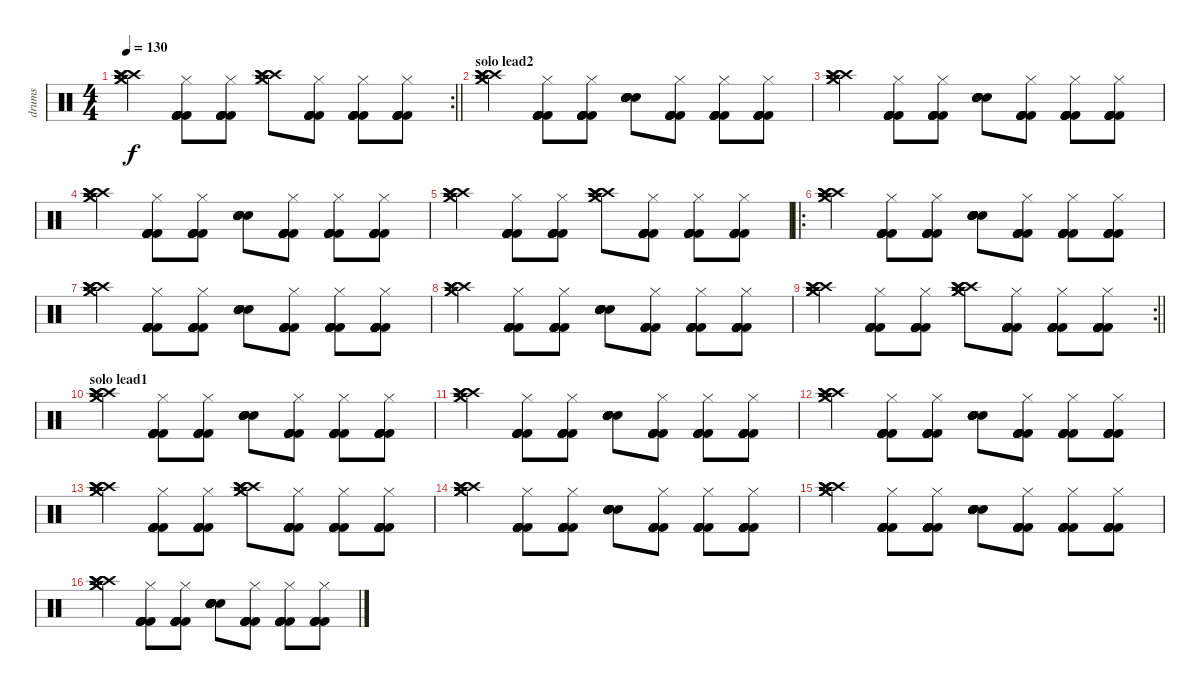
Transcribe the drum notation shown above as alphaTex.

\track ("drums" "drums") {instrument percussion}
\staff {score}
\articulation defaults
\rc 2
\ts (4 4)
\tempo 130
\clef neutral
\barLineRight lightlight
\ks c
("Crash medium (hit)" "Crash medium (hit)" "Crash high (hit)" "Crash high (hit)" "Crash high (hit)" "Crash high (hit)").4{dy f} ("Kick (hit) 2" "Kick (hit) 2" "Kick (hit) 2" "Hi-Hat (closed)" "Kick (hit) 2" "Kick (hit) 2").8 ("Kick (hit) 2" "Kick (hit) 2" "Kick (hit) 2" "Hi-Hat (closed)" "Kick (hit) 2" "Kick (hit) 2").8 ("Crash medium (hit)" "Crash medium (hit)" "Crash high (hit)" "Crash high (hit)" "Crash high (hit)" "Crash high (hit)").8 ("Kick (hit) 2" "Kick (hit) 2" "Kick (hit) 2" "Hi-Hat (closed)" "Kick (hit) 2" "Kick (hit) 2").8 ("Kick (hit) 2" "Kick (hit) 2" "Kick (hit) 2" "Hi-Hat (closed)" "Kick (hit) 2" "Kick (hit) 2").8 ("Kick (hit) 2" "Kick (hit) 2" "Kick (hit) 2" "Hi-Hat (closed)" "Kick (hit) 2" "Kick (hit) 2").8 |
\section ("" "solo lead2")
("Crash medium (hit)" "Crash medium (hit)" "Crash high (hit)" "Crash high (hit)" "Crash high (hit)" "Crash high (hit)").4 ("Kick (hit) 2" "Kick (hit) 2" "Kick (hit) 2" "Hi-Hat (closed)" "Kick (hit) 2" "Kick (hit) 2").8 ("Kick (hit) 2" "Kick (hit) 2" "Kick (hit) 2" "Hi-Hat (closed)" "Kick (hit) 2" "Kick (hit) 2").8 ("Snare (hit) 2" "Snare (hit) 2" "Snare (hit) 2" "Electric Snare (hit)" "Electric Snare (hit)" "Electric Snare (hit)").8 ("Kick (hit) 2" "Kick (hit) 2" "Kick (hit) 2" "Hi-Hat (closed)" "Kick (hit) 2" "Kick (hit) 2").8 ("Kick (hit) 2" "Kick (hit) 2" "Kick (hit) 2" "Hi-Hat (closed)" "Kick (hit) 2" "Kick (hit) 2").8 ("Kick (hit) 2" "Kick (hit) 2" "Kick (hit) 2" "Hi-Hat (closed)" "Kick (hit) 2" "Kick (hit) 2").8 |
("Crash medium (hit)" "Crash medium (hit)" "Crash high (hit)" "Crash high (hit)" "Crash high (hit)" "Crash high (hit)").4 ("Kick (hit) 2" "Kick (hit) 2" "Kick (hit) 2" "Hi-Hat (closed)" "Kick (hit) 2" "Kick (hit) 2").8 ("Kick (hit) 2" "Kick (hit) 2" "Kick (hit) 2" "Hi-Hat (closed)" "Kick (hit) 2" "Kick (hit) 2").8 ("Snare (hit) 2" "Snare (hit) 2" "Snare (hit) 2" "Electric Snare (hit)" "Electric Snare (hit)" "Electric Snare (hit)").8 ("Kick (hit) 2" "Kick (hit) 2" "Kick (hit) 2" "Hi-Hat (closed)" "Kick (hit) 2" "Kick (hit) 2").8 ("Kick (hit) 2" "Kick (hit) 2" "Kick (hit) 2" "Hi-Hat (closed)" "Kick (hit) 2" "Kick (hit) 2").8 ("Kick (hit) 2" "Kick (hit) 2" "Kick (hit) 2" "Hi-Hat (closed)" "Kick (hit) 2" "Kick (hit) 2").8 |
("Crash medium (hit)" "Crash medium (hit)" "Crash high (hit)" "Crash high (hit)" "Crash high (hit)" "Crash high (hit)").4 ("Kick (hit) 2" "Kick (hit) 2" "Kick (hit) 2" "Hi-Hat (closed)" "Kick (hit) 2" "Kick (hit) 2").8 ("Kick (hit) 2" "Kick (hit) 2" "Kick (hit) 2" "Hi-Hat (closed)" "Kick (hit) 2" "Kick (hit) 2").8 ("Snare (hit) 2" "Snare (hit) 2" "Snare (hit) 2" "Electric Snare (hit)" "Electric Snare (hit)" "Electric Snare (hit)").8 ("Kick (hit) 2" "Kick (hit) 2" "Kick (hit) 2" "Hi-Hat (closed)" "Kick (hit) 2" "Kick (hit) 2").8 ("Kick (hit) 2" "Kick (hit) 2" "Kick (hit) 2" "Hi-Hat (closed)" "Kick (hit) 2" "Kick (hit) 2").8 ("Kick (hit) 2" "Kick (hit) 2" "Kick (hit) 2" "Hi-Hat (closed)" "Kick (hit) 2" "Kick (hit) 2").8 |
("Crash medium (hit)" "Crash medium (hit)" "Crash high (hit)" "Crash high (hit)" "Crash high (hit)" "Crash high (hit)").4 ("Kick (hit) 2" "Kick (hit) 2" "Kick (hit) 2" "Hi-Hat (closed)" "Kick (hit) 2" "Kick (hit) 2").8 ("Kick (hit) 2" "Kick (hit) 2" "Kick (hit) 2" "Hi-Hat (closed)" "Kick (hit) 2" "Kick (hit) 2").8 ("Crash medium (hit)" "Crash medium (hit)" "Crash high (hit)" "Crash high (hit)" "Crash high (hit)" "Crash high (hit)").8 ("Kick (hit) 2" "Kick (hit) 2" "Kick (hit) 2" "Hi-Hat (closed)" "Kick (hit) 2" "Kick (hit) 2").8 ("Kick (hit) 2" "Kick (hit) 2" "Kick (hit) 2" "Hi-Hat (closed)" "Kick (hit) 2" "Kick (hit) 2").8 ("Kick (hit) 2" "Kick (hit) 2" "Kick (hit) 2" "Hi-Hat (closed)" "Kick (hit) 2" "Kick (hit) 2").8 |
\ro
("Crash medium (hit)" "Crash medium (hit)" "Crash high (hit)" "Crash high (hit)" "Crash high (hit)" "Crash high (hit)").4 ("Kick (hit) 2" "Kick (hit) 2" "Kick (hit) 2" "Hi-Hat (closed)" "Kick (hit) 2" "Kick (hit) 2").8 ("Kick (hit) 2" "Kick (hit) 2" "Kick (hit) 2" "Hi-Hat (closed)" "Kick (hit) 2" "Kick (hit) 2").8 ("Snare (hit) 2" "Snare (hit) 2" "Snare (hit) 2" "Electric Snare (hit)" "Electric Snare (hit)" "Electric Snare (hit)").8 ("Kick (hit) 2" "Kick (hit) 2" "Kick (hit) 2" "Hi-Hat (closed)" "Kick (hit) 2" "Kick (hit) 2").8 ("Kick (hit) 2" "Kick (hit) 2" "Kick (hit) 2" "Hi-Hat (closed)" "Kick (hit) 2" "Kick (hit) 2").8 ("Kick (hit) 2" "Kick (hit) 2" "Kick (hit) 2" "Hi-Hat (closed)" "Kick (hit) 2" "Kick (hit) 2").8 |
("Crash medium (hit)" "Crash medium (hit)" "Crash high (hit)" "Crash high (hit)" "Crash high (hit)" "Crash high (hit)").4 ("Kick (hit) 2" "Kick (hit) 2" "Kick (hit) 2" "Hi-Hat (closed)" "Kick (hit) 2" "Kick (hit) 2").8 ("Kick (hit) 2" "Kick (hit) 2" "Kick (hit) 2" "Hi-Hat (closed)" "Kick (hit) 2" "Kick (hit) 2").8 ("Snare (hit) 2" "Snare (hit) 2" "Snare (hit) 2" "Electric Snare (hit)" "Electric Snare (hit)" "Electric Snare (hit)").8 ("Kick (hit) 2" "Kick (hit) 2" "Kick (hit) 2" "Hi-Hat (closed)" "Kick (hit) 2" "Kick (hit) 2").8 ("Kick (hit) 2" "Kick (hit) 2" "Kick (hit) 2" "Hi-Hat (closed)" "Kick (hit) 2" "Kick (hit) 2").8 ("Kick (hit) 2" "Kick (hit) 2" "Kick (hit) 2" "Hi-Hat (closed)" "Kick (hit) 2" "Kick (hit) 2").8 |
("Crash medium (hit)" "Crash medium (hit)" "Crash high (hit)" "Crash high (hit)" "Crash high (hit)" "Crash high (hit)").4 ("Kick (hit) 2" "Kick (hit) 2" "Kick (hit) 2" "Hi-Hat (closed)" "Kick (hit) 2" "Kick (hit) 2").8 ("Kick (hit) 2" "Kick (hit) 2" "Kick (hit) 2" "Hi-Hat (closed)" "Kick (hit) 2" "Kick (hit) 2").8 ("Snare (hit) 2" "Snare (hit) 2" "Snare (hit) 2" "Electric Snare (hit)" "Electric Snare (hit)" "Electric Snare (hit)").8 ("Kick (hit) 2" "Kick (hit) 2" "Kick (hit) 2" "Hi-Hat (closed)" "Kick (hit) 2" "Kick (hit) 2").8 ("Kick (hit) 2" "Kick (hit) 2" "Kick (hit) 2" "Hi-Hat (closed)" "Kick (hit) 2" "Kick (hit) 2").8 ("Kick (hit) 2" "Kick (hit) 2" "Kick (hit) 2" "Hi-Hat (closed)" "Kick (hit) 2" "Kick (hit) 2").8 |
\rc 2
\barLineRight lightlight
("Crash medium (hit)" "Crash medium (hit)" "Crash high (hit)" "Crash high (hit)" "Crash high (hit)" "Crash high (hit)").4 ("Kick (hit) 2" "Kick (hit) 2" "Kick (hit) 2" "Hi-Hat (closed)" "Kick (hit) 2" "Kick (hit) 2").8 ("Kick (hit) 2" "Kick (hit) 2" "Kick (hit) 2" "Hi-Hat (closed)" "Kick (hit) 2" "Kick (hit) 2").8 ("Crash medium (hit)" "Crash medium (hit)" "Crash high (hit)" "Crash high (hit)" "Crash high (hit)" "Crash high (hit)").8 ("Kick (hit) 2" "Kick (hit) 2" "Kick (hit) 2" "Hi-Hat (closed)" "Kick (hit) 2" "Kick (hit) 2").8 ("Kick (hit) 2" "Kick (hit) 2" "Kick (hit) 2" "Hi-Hat (closed)" "Kick (hit) 2" "Kick (hit) 2").8 ("Kick (hit) 2" "Kick (hit) 2" "Kick (hit) 2" "Hi-Hat (closed)" "Kick (hit) 2" "Kick (hit) 2").8 |
\section ("" "solo lead1")
("Crash medium (hit)" "Crash medium (hit)" "Crash high (hit)" "Crash high (hit)" "Crash high (hit)" "Crash high (hit)").4 ("Kick (hit) 2" "Kick (hit) 2" "Kick (hit) 2" "Hi-Hat (closed)" "Kick (hit) 2" "Kick (hit) 2").8 ("Kick (hit) 2" "Kick (hit) 2" "Kick (hit) 2" "Hi-Hat (closed)" "Kick (hit) 2" "Kick (hit) 2").8 ("Snare (hit) 2" "Snare (hit) 2" "Snare (hit) 2" "Electric Snare (hit)" "Electric Snare (hit)" "Electric Snare (hit)").8 ("Kick (hit) 2" "Kick (hit) 2" "Kick (hit) 2" "Hi-Hat (closed)" "Kick (hit) 2" "Kick (hit) 2").8 ("Kick (hit) 2" "Kick (hit) 2" "Kick (hit) 2" "Hi-Hat (closed)" "Kick (hit) 2" "Kick (hit) 2").8 ("Kick (hit) 2" "Kick (hit) 2" "Kick (hit) 2" "Hi-Hat (closed)" "Kick (hit) 2" "Kick (hit) 2").8 |
("Crash medium (hit)" "Crash medium (hit)" "Crash high (hit)" "Crash high (hit)" "Crash high (hit)" "Crash high (hit)").4 ("Kick (hit) 2" "Kick (hit) 2" "Kick (hit) 2" "Hi-Hat (closed)" "Kick (hit) 2" "Kick (hit) 2").8 ("Kick (hit) 2" "Kick (hit) 2" "Kick (hit) 2" "Hi-Hat (closed)" "Kick (hit) 2" "Kick (hit) 2").8 ("Snare (hit) 2" "Snare (hit) 2" "Snare (hit) 2" "Electric Snare (hit)" "Electric Snare (hit)" "Electric Snare (hit)").8 ("Kick (hit) 2" "Kick (hit) 2" "Kick (hit) 2" "Hi-Hat (closed)" "Kick (hit) 2" "Kick (hit) 2").8 ("Kick (hit) 2" "Kick (hit) 2" "Kick (hit) 2" "Hi-Hat (closed)" "Kick (hit) 2" "Kick (hit) 2").8 ("Kick (hit) 2" "Kick (hit) 2" "Kick (hit) 2" "Hi-Hat (closed)" "Kick (hit) 2" "Kick (hit) 2").8 |
("Crash medium (hit)" "Crash medium (hit)" "Crash high (hit)" "Crash high (hit)" "Crash high (hit)" "Crash high (hit)").4 ("Kick (hit) 2" "Kick (hit) 2" "Kick (hit) 2" "Hi-Hat (closed)" "Kick (hit) 2" "Kick (hit) 2").8 ("Kick (hit) 2" "Kick (hit) 2" "Kick (hit) 2" "Hi-Hat (closed)" "Kick (hit) 2" "Kick (hit) 2").8 ("Snare (hit) 2" "Snare (hit) 2" "Snare (hit) 2" "Electric Snare (hit)" "Electric Snare (hit)" "Electric Snare (hit)").8 ("Kick (hit) 2" "Kick (hit) 2" "Kick (hit) 2" "Hi-Hat (closed)" "Kick (hit) 2" "Kick (hit) 2").8 ("Kick (hit) 2" "Kick (hit) 2" "Kick (hit) 2" "Hi-Hat (closed)" "Kick (hit) 2" "Kick (hit) 2").8 ("Kick (hit) 2" "Kick (hit) 2" "Kick (hit) 2" "Hi-Hat (closed)" "Kick (hit) 2" "Kick (hit) 2").8 |
("Crash medium (hit)" "Crash medium (hit)" "Crash high (hit)" "Crash high (hit)" "Crash high (hit)" "Crash high (hit)").4 ("Kick (hit) 2" "Kick (hit) 2" "Kick (hit) 2" "Hi-Hat (closed)" "Kick (hit) 2" "Kick (hit) 2").8 ("Kick (hit) 2" "Kick (hit) 2" "Kick (hit) 2" "Hi-Hat (closed)" "Kick (hit) 2" "Kick (hit) 2").8 ("Crash medium (hit)" "Crash medium (hit)" "Crash high (hit)" "Crash high (hit)" "Crash high (hit)" "Crash high (hit)").8 ("Kick (hit) 2" "Kick (hit) 2" "Kick (hit) 2" "Hi-Hat (closed)" "Kick (hit) 2" "Kick (hit) 2").8 ("Kick (hit) 2" "Kick (hit) 2" "Kick (hit) 2" "Hi-Hat (closed)" "Kick (hit) 2" "Kick (hit) 2").8 ("Kick (hit) 2" "Kick (hit) 2" "Kick (hit) 2" "Hi-Hat (closed)" "Kick (hit) 2" "Kick (hit) 2").8 |
("Crash medium (hit)" "Crash medium (hit)" "Crash high (hit)" "Crash high (hit)" "Crash high (hit)" "Crash high (hit)").4 ("Kick (hit) 2" "Kick (hit) 2" "Kick (hit) 2" "Hi-Hat (closed)" "Kick (hit) 2" "Kick (hit) 2").8 ("Kick (hit) 2" "Kick (hit) 2" "Kick (hit) 2" "Hi-Hat (closed)" "Kick (hit) 2" "Kick (hit) 2").8 ("Snare (hit) 2" "Snare (hit) 2" "Snare (hit) 2" "Electric Snare (hit)" "Electric Snare (hit)" "Electric Snare (hit)").8 ("Kick (hit) 2" "Kick (hit) 2" "Kick (hit) 2" "Hi-Hat (closed)" "Kick (hit) 2" "Kick (hit) 2").8 ("Kick (hit) 2" "Kick (hit) 2" "Kick (hit) 2" "Hi-Hat (closed)" "Kick (hit) 2" "Kick (hit) 2").8 ("Kick (hit) 2" "Kick (hit) 2" "Kick (hit) 2" "Hi-Hat (closed)" "Kick (hit) 2" "Kick (hit) 2").8 |
("Crash medium (hit)" "Crash medium (hit)" "Crash high (hit)" "Crash high (hit)" "Crash high (hit)" "Crash high (hit)").4 ("Kick (hit) 2" "Kick (hit) 2" "Kick (hit) 2" "Hi-Hat (closed)" "Kick (hit) 2" "Kick (hit) 2").8 ("Kick (hit) 2" "Kick (hit) 2" "Kick (hit) 2" "Hi-Hat (closed)" "Kick (hit) 2" "Kick (hit) 2").8 ("Snare (hit) 2" "Snare (hit) 2" "Snare (hit) 2" "Electric Snare (hit)" "Electric Snare (hit)" "Electric Snare (hit)").8 ("Kick (hit) 2" "Kick (hit) 2" "Kick (hit) 2" "Hi-Hat (closed)" "Kick (hit) 2" "Kick (hit) 2").8 ("Kick (hit) 2" "Kick (hit) 2" "Kick (hit) 2" "Hi-Hat (closed)" "Kick (hit) 2" "Kick (hit) 2").8 ("Kick (hit) 2" "Kick (hit) 2" "Kick (hit) 2" "Hi-Hat (closed)" "Kick (hit) 2" "Kick (hit) 2").8 |
("Crash medium (hit)" "Crash medium (hit)" "Crash high (hit)" "Crash high (hit)" "Crash high (hit)" "Crash high (hit)").4 ("Kick (hit) 2" "Kick (hit) 2" "Kick (hit) 2" "Hi-Hat (closed)" "Kick (hit) 2" "Kick (hit) 2").8 ("Kick (hit) 2" "Kick (hit) 2" "Kick (hit) 2" "Hi-Hat (closed)" "Kick (hit) 2" "Kick (hit) 2").8 ("Snare (hit) 2" "Snare (hit) 2" "Snare (hit) 2" "Electric Snare (hit)" "Electric Snare (hit)" "Electric Snare (hit)").8 ("Kick (hit) 2" "Kick (hit) 2" "Kick (hit) 2" "Hi-Hat (closed)" "Kick (hit) 2" "Kick (hit) 2").8 ("Kick (hit) 2" "Kick (hit) 2" "Kick (hit) 2" "Hi-Hat (closed)" "Kick (hit) 2" "Kick (hit) 2").8 ("Kick (hit) 2" "Kick (hit) 2" "Kick (hit) 2" "Hi-Hat (closed)" "Kick (hit) 2" "Kick (hit) 2").8
